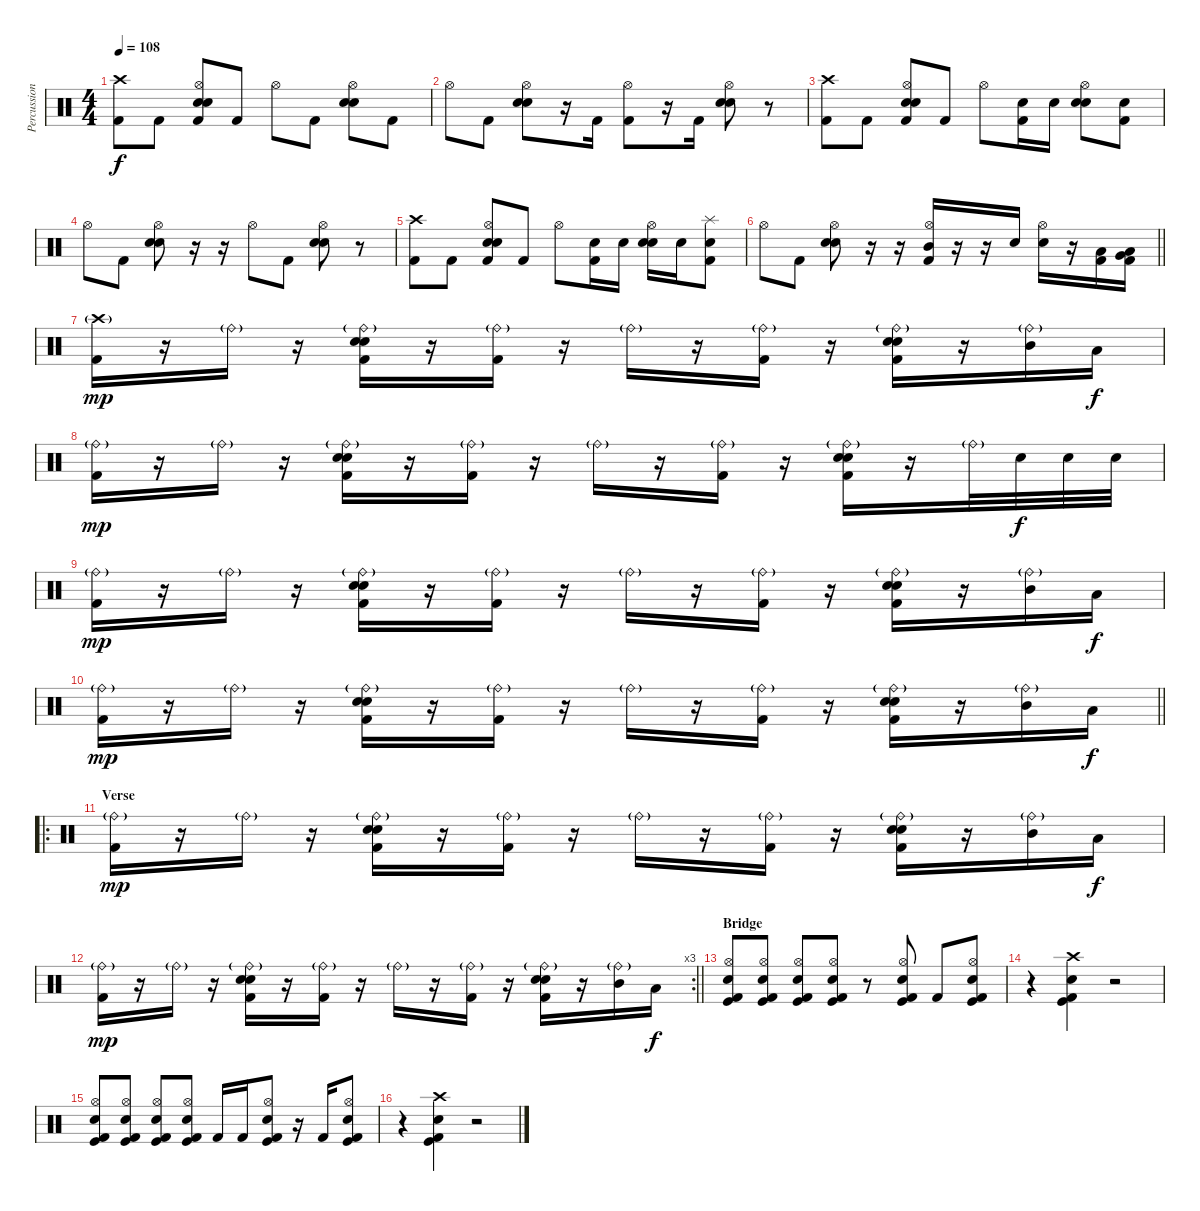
\track ("Percussion" "Percussion") {instrument percussion}
\staff {score}
\articulation defaults
\ts (4 4)
\tempo 108
\clef neutral
\ks c
("Crash high (hit)" "Kick (hit) 2").8{dy f} "Kick (hit) 2".8 ("Hi-Hat (open)" "Electric Snare (hit)" "Snare (hit) 2" "Kick (hit) 2").8 "Kick (hit) 2".8 "Hi-Hat (open)".8 "Kick (hit) 2".8 ("Hi-Hat (open)" "Electric Snare (hit)" "Snare (hit) 2").8 "Kick (hit) 2".8 |
"Hi-Hat (open)".8 "Kick (hit) 2".8 ("Hi-Hat (open)" "Electric Snare (hit)" "Snare (hit) 2").8 r.16 "Kick (hit) 2".16 ("Hi-Hat (open)" "Kick (hit) 2").8 r.16 "Kick (hit) 2".16 ("Hi-Hat (open)" "Electric Snare (hit)" "Snare (hit) 2").8 r.8 |
("Crash high (hit)" "Kick (hit) 2").8 "Kick (hit) 2".8 ("Hi-Hat (open)" "Electric Snare (hit)" "Snare (hit) 2" "Kick (hit) 2").8 "Kick (hit) 2".8 "Hi-Hat (open)".8 ("Snare (hit) 2" "Kick (hit) 2").16 "Snare (hit) 2".16 ("Hi-Hat (open)" "Electric Snare (hit)" "Snare (hit) 2").8 ("Snare (hit) 2" "Kick (hit) 2").8 |
"Hi-Hat (open)".8 "Kick (hit) 2".8 ("Hi-Hat (open)" "Electric Snare (hit)" "Snare (hit) 2").8 r.16 r.16 "Hi-Hat (open)".8 "Kick (hit) 2".8 ("Hi-Hat (open)" "Electric Snare (hit)" "Snare (hit) 2").8 r.8 |
("Crash high (hit)" "Kick (hit) 2").8 "Kick (hit) 2".8 ("Hi-Hat (open)" "Electric Snare (hit)" "Snare (hit) 2" "Kick (hit) 2").8 "Kick (hit) 2".8 "Hi-Hat (open)".8 ("Snare (hit) 2" "Kick (hit) 2").16 "Snare (hit) 2".16 ("Hi-Hat (open)" "Electric Snare (hit)" "Snare (hit) 2").16 "Snare (hit) 2".16 ("Splash (hit)" "Snare (hit) 2" "Kick (hit) 2").8 |
\barLineRight lightlight "Hi-Hat (open)".8 "Kick (hit) 2".8
("Hi-Hat (open)" "Electric Snare (hit)" "Snare (hit) 2").8 r.16 r.16 ("Hi-Hat (open)" "Mid Tom (hit)" "Kick (hit) 2").16 r.16 r.16 "Snare (hit) 2".16 ("Hi-Hat (open)" "Snare (hit) 2").16 r.16 ("Low Tom (hit)" "Kick (hit) 2").16 ("Low Floor Tom (hit)" "Very Low Tom (hit)" "Kick (hit) 2").16 |
("Crash high (hit)"{g} "Kick (hit) 2").16{dy mp} r.16 "Ride (bell)"{g}.16 r.16 ("Ride (bell)"{g} "Kick (hit) 2" "Snare (hit) 2" "Electric Snare (hit)").16 r.16 ("Ride (bell)"{g} "Kick (hit) 2").16 r.16 "Ride (bell)"{g}.16 r.16 ("Ride (bell)"{g} "Kick (hit) 2").16 r.16 ("Ride (bell)"{g} "Kick (hit) 2" "Snare (hit) 2" "Electric Snare (hit)").16 r.16 ("Ride (bell)"{g} "Mid Tom (hit)").16 "Low Tom (hit)".16{dy f} |
("Ride (bell)"{g} "Kick (hit) 2").16{dy mp} r.16 "Ride (bell)"{g}.16 r.16 ("Ride (bell)"{g} "Kick (hit) 2" "Snare (hit) 2" "Electric Snare (hit)").16 r.16 ("Ride (bell)"{g} "Kick (hit) 2").16 r.16 "Ride (bell)"{g}.16 r.16 ("Ride (bell)"{g} "Kick (hit) 2").16 r.16 ("Ride (bell)"{g} "Kick (hit) 2" "Snare (hit) 2" "Electric Snare (hit)").16 r.16 "Ride (bell)"{g}.32 "Snare (hit) 2".32{dy f} "Snare (hit) 2".32 "Snare (hit) 2".32 |
("Ride (bell)"{g} "Kick (hit) 2").16{dy mp} r.16 "Ride (bell)"{g}.16 r.16 ("Ride (bell)"{g} "Kick (hit) 2" "Snare (hit) 2" "Electric Snare (hit)").16 r.16 ("Ride (bell)"{g} "Kick (hit) 2").16 r.16 "Ride (bell)"{g}.16 r.16 ("Ride (bell)"{g} "Kick (hit) 2").16 r.16 ("Ride (bell)"{g} "Kick (hit) 2" "Snare (hit) 2" "Electric Snare (hit)").16 r.16 ("Ride (bell)"{g} "Mid Tom (hit)").16 "Low Tom (hit)".16{dy f} |
\barLineRight lightlight
("Ride (bell)"{g} "Kick (hit) 2").16{dy mp} r.16 "Ride (bell)"{g}.16 r.16 ("Ride (bell)"{g} "Kick (hit) 2" "Snare (hit) 2" "Electric Snare (hit)").16 r.16 ("Ride (bell)"{g} "Kick (hit) 2").16 r.16 "Ride (bell)"{g}.16 r.16 ("Ride (bell)"{g} "Kick (hit) 2").16 r.16 ("Ride (bell)"{g} "Kick (hit) 2" "Snare (hit) 2" "Electric Snare (hit)").16 r.16 ("Ride (bell)"{g} "Mid Tom (hit)").16 "Low Tom (hit)".16{dy f} |
\ro
\section ("" "Verse")
("Ride (bell)"{g} "Kick (hit) 2").16{dy mp} r.16 "Ride (bell)"{g}.16 r.16 ("Ride (bell)"{g} "Kick (hit) 2" "Snare (hit) 2" "Electric Snare (hit)").16 r.16 ("Ride (bell)"{g} "Kick (hit) 2").16 r.16 "Ride (bell)"{g}.16 r.16 ("Ride (bell)"{g} "Kick (hit) 2").16 r.16 ("Ride (bell)"{g} "Kick (hit) 2" "Snare (hit) 2" "Electric Snare (hit)").16 r.16 ("Ride (bell)"{g} "Mid Tom (hit)").16 "Low Tom (hit)".16{dy f} |
\rc 3
\barLineRight lightlight
("Ride (bell)"{g} "Kick (hit) 2").16{dy mp} r.16 "Ride (bell)"{g}.16 r.16 ("Ride (bell)"{g} "Kick (hit) 2" "Snare (hit) 2" "Electric Snare (hit)").16 r.16 ("Ride (bell)"{g} "Kick (hit) 2").16 r.16 "Ride (bell)"{g}.16 r.16 ("Ride (bell)"{g} "Kick (hit) 2").16 r.16 ("Ride (bell)"{g} "Kick (hit) 2" "Snare (hit) 2" "Electric Snare (hit)").16 r.16 ("Ride (bell)"{g} "Mid Tom (hit)").16 "Low Tom (hit)".16{dy f} |
\section ("" "Bridge")
("Kick (hit)" "Kick (hit) 2" "Snare (hit) 2" "Hi-Hat (open)").8 ("Kick (hit)" "Kick (hit) 2" "Snare (hit) 2" "Hi-Hat (open)").8 ("Kick (hit)" "Kick (hit) 2" "Snare (hit) 2" "Hi-Hat (open)").8 ("Kick (hit)" "Kick (hit) 2" "Snare (hit) 2" "Hi-Hat (open)").8 r.8 ("Kick (hit)" "Kick (hit) 2" "Snare (hit) 2" "Hi-Hat (open)").8 "Kick (hit) 2".8 ("Kick (hit)" "Kick (hit) 2" "Snare (hit) 2" "Hi-Hat (open)").8 |
r.4 ("Kick (hit)" "Kick (hit) 2" "Snare (hit) 2" "Crash high (hit)").4 r.2 |
("Kick (hit)" "Kick (hit) 2" "Snare (hit) 2" "Hi-Hat (open)").8 ("Kick (hit)" "Kick (hit) 2" "Snare (hit) 2" "Hi-Hat (open)").8 ("Kick (hit)" "Kick (hit) 2" "Snare (hit) 2" "Hi-Hat (open)").8 ("Kick (hit)" "Kick (hit) 2" "Snare (hit) 2" "Hi-Hat (open)").8 "Kick (hit) 2".16 "Kick (hit) 2".16 ("Kick (hit)" "Kick (hit) 2" "Snare (hit) 2" "Hi-Hat (open)").8 r.16 "Kick (hit) 2".16 ("Kick (hit)" "Kick (hit) 2" "Snare (hit) 2" "Hi-Hat (open)").8 |
r.4 ("Kick (hit)" "Kick (hit) 2" "Snare (hit) 2" "Crash high (hit)").4 r.2
